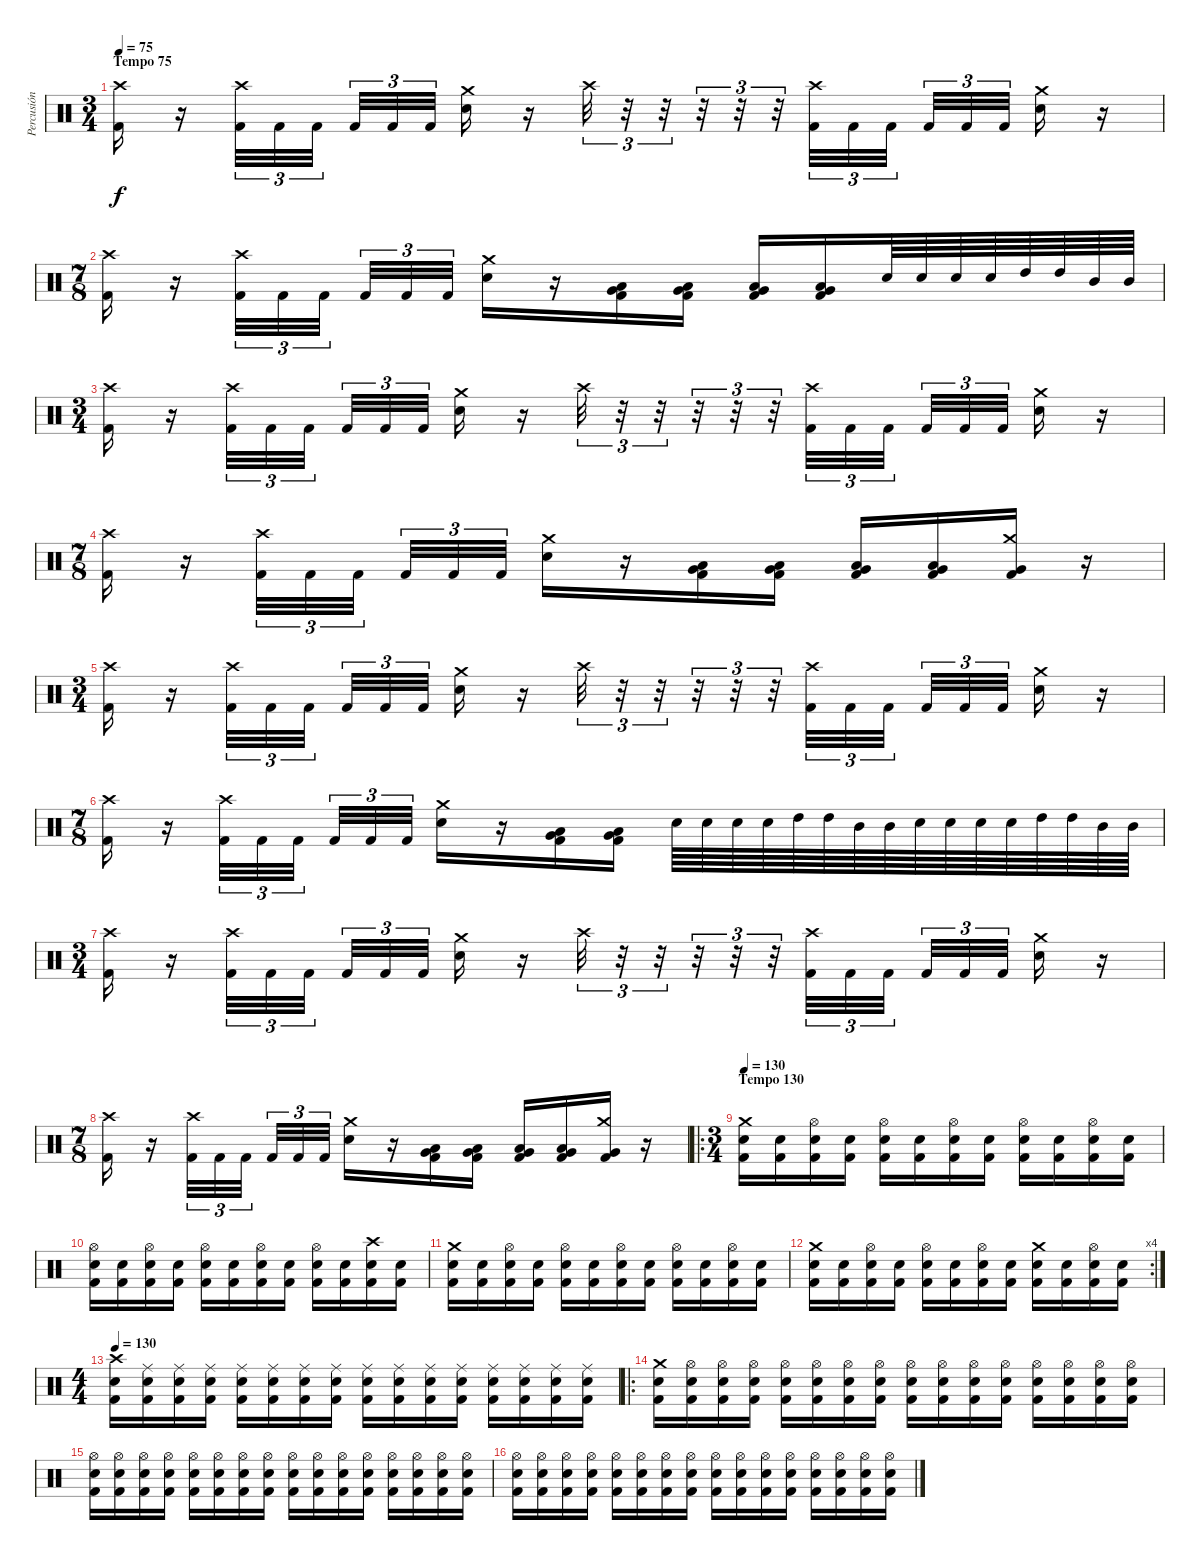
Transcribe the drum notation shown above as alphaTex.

\track ("Percusión" "Percusión") {instrument percussion}
\staff {score}
\articulation defaults
\ts (3 4)
\section ("" "Tempo 75")
\tempo 75
\clef neutral
\ks c
("Crash high (hit)" "Kick (hit) 2").16{dy f} r.16 ("Crash high (hit)" "Kick (hit) 2").32{tu (3 2)} "Kick (hit) 2".32{tu (3 2)} "Kick (hit) 2".32{tu (3 2)} "Kick (hit) 2".32{tu (3 2)} "Kick (hit) 2".32{tu (3 2)} "Kick (hit) 2".32{tu (3 2)} ("Crash medium (hit)" "Electric Snare (hit)").16 r.16 "Crash high (hit)".32{tu (3 2)} r.32{tu (3 2)} r.32{tu (3 2)} r.32{tu (3 2)} r.32{tu (3 2)} r.32{tu (3 2)} ("Crash high (hit)" "Kick (hit) 2").32{tu (3 2)} "Kick (hit) 2".32{tu (3 2)} "Kick (hit) 2".32{tu (3 2)} "Kick (hit) 2".32{tu (3 2)} "Kick (hit) 2".32{tu (3 2)} "Kick (hit) 2".32{tu (3 2)} ("Crash medium (hit)" "Electric Snare (hit)").16 r.16 |
\ts (7 8)
("Crash high (hit)" "Kick (hit) 2").16 r.16 ("Crash high (hit)" "Kick (hit) 2").32{tu (3 2)} "Kick (hit) 2".32{tu (3 2)} "Kick (hit) 2".32{tu (3 2)} "Kick (hit) 2".32{tu (3 2)} "Kick (hit) 2".32{tu (3 2)} "Kick (hit) 2".32{tu (3 2)} ("Crash medium (hit)" "Electric Snare (hit)").16 r.16 ("Low Floor Tom (hit)" "Very Low Tom (hit)" "Kick (hit) 2").16 ("Low Floor Tom (hit)" "Very Low Tom (hit)" "Kick (hit) 2").16 ("Low Floor Tom (hit)" "Very Low Tom (hit)" "Kick (hit) 2").16 ("Low Floor Tom (hit)" "Very Low Tom (hit)" "Kick (hit) 2").16 "Electric Snare (hit)".64 "Electric Snare (hit)".64 "Electric Snare (hit)".64 "Electric Snare (hit)".64 "High Tom (hit)".64 "High Tom (hit)".64 "Mid Tom (hit)".64 "Mid Tom (hit)".64 |
\ts (3 4)
("Crash high (hit)" "Kick (hit) 2").16 r.16 ("Crash high (hit)" "Kick (hit) 2").32{tu (3 2)} "Kick (hit) 2".32{tu (3 2)} "Kick (hit) 2".32{tu (3 2)} "Kick (hit) 2".32{tu (3 2)} "Kick (hit) 2".32{tu (3 2)} "Kick (hit) 2".32{tu (3 2)} ("Crash medium (hit)" "Electric Snare (hit)").16 r.16 "Crash high (hit)".32{tu (3 2)} r.32{tu (3 2)} r.32{tu (3 2)} r.32{tu (3 2)} r.32{tu (3 2)} r.32{tu (3 2)} ("Crash high (hit)" "Kick (hit) 2").32{tu (3 2)} "Kick (hit) 2".32{tu (3 2)} "Kick (hit) 2".32{tu (3 2)} "Kick (hit) 2".32{tu (3 2)} "Kick (hit) 2".32{tu (3 2)} "Kick (hit) 2".32{tu (3 2)} ("Crash medium (hit)" "Electric Snare (hit)").16 r.16 |
\ts (7 8)
("Crash high (hit)" "Kick (hit) 2").16 r.16 ("Crash high (hit)" "Kick (hit) 2").32{tu (3 2)} "Kick (hit) 2".32{tu (3 2)} "Kick (hit) 2".32{tu (3 2)} "Kick (hit) 2".32{tu (3 2)} "Kick (hit) 2".32{tu (3 2)} "Kick (hit) 2".32{tu (3 2)} ("Crash medium (hit)" "Electric Snare (hit)").16 r.16 ("Low Floor Tom (hit)" "Very Low Tom (hit)" "Kick (hit) 2").16 ("Low Floor Tom (hit)" "Very Low Tom (hit)" "Kick (hit) 2").16 ("Low Floor Tom (hit)" "Very Low Tom (hit)" "Kick (hit) 2").16 ("Low Floor Tom (hit)" "Very Low Tom (hit)" "Kick (hit) 2").16 ("Crash medium (hit)" "Very Low Tom (hit)" "Kick (hit) 2").16 r.16 |
\ts (3 4)
("Crash high (hit)" "Kick (hit) 2").16 r.16 ("Crash high (hit)" "Kick (hit) 2").32{tu (3 2)} "Kick (hit) 2".32{tu (3 2)} "Kick (hit) 2".32{tu (3 2)} "Kick (hit) 2".32{tu (3 2)} "Kick (hit) 2".32{tu (3 2)} "Kick (hit) 2".32{tu (3 2)} ("Crash medium (hit)" "Electric Snare (hit)").16 r.16 "Crash high (hit)".32{tu (3 2)} r.32{tu (3 2)} r.32{tu (3 2)} r.32{tu (3 2)} r.32{tu (3 2)} r.32{tu (3 2)} ("Crash high (hit)" "Kick (hit) 2").32{tu (3 2)} "Kick (hit) 2".32{tu (3 2)} "Kick (hit) 2".32{tu (3 2)} "Kick (hit) 2".32{tu (3 2)} "Kick (hit) 2".32{tu (3 2)} "Kick (hit) 2".32{tu (3 2)} ("Crash medium (hit)" "Electric Snare (hit)").16 r.16 |
\ts (7 8)
("Crash high (hit)" "Kick (hit) 2").16 r.16 ("Crash high (hit)" "Kick (hit) 2").32{tu (3 2)} "Kick (hit) 2".32{tu (3 2)} "Kick (hit) 2".32{tu (3 2)} "Kick (hit) 2".32{tu (3 2)} "Kick (hit) 2".32{tu (3 2)} "Kick (hit) 2".32{tu (3 2)} ("Crash medium (hit)" "Electric Snare (hit)").16 r.16 ("Low Floor Tom (hit)" "Very Low Tom (hit)" "Kick (hit) 2").16 ("Low Floor Tom (hit)" "Very Low Tom (hit)" "Kick (hit) 2").16 "Electric Snare (hit)".64 "Electric Snare (hit)".64 "Electric Snare (hit)".64 "Electric Snare (hit)".64 "High Tom (hit)".64 "High Tom (hit)".64 "Mid Tom (hit)".64 "Mid Tom (hit)".64 "Electric Snare (hit)".64 "Electric Snare (hit)".64 "Electric Snare (hit)".64 "Electric Snare (hit)".64 "High Tom (hit)".64 "High Tom (hit)".64 "Mid Tom (hit)".64 "Mid Tom (hit)".64 |
\ts (3 4)
("Crash high (hit)" "Kick (hit) 2").16 r.16 ("Crash high (hit)" "Kick (hit) 2").32{tu (3 2)} "Kick (hit) 2".32{tu (3 2)} "Kick (hit) 2".32{tu (3 2)} "Kick (hit) 2".32{tu (3 2)} "Kick (hit) 2".32{tu (3 2)} "Kick (hit) 2".32{tu (3 2)} ("Crash medium (hit)" "Electric Snare (hit)").16 r.16 "Crash high (hit)".32{tu (3 2)} r.32{tu (3 2)} r.32{tu (3 2)} r.32{tu (3 2)} r.32{tu (3 2)} r.32{tu (3 2)} ("Crash high (hit)" "Kick (hit) 2").32{tu (3 2)} "Kick (hit) 2".32{tu (3 2)} "Kick (hit) 2".32{tu (3 2)} "Kick (hit) 2".32{tu (3 2)} "Kick (hit) 2".32{tu (3 2)} "Kick (hit) 2".32{tu (3 2)} ("Crash medium (hit)" "Electric Snare (hit)").16 r.16 |
\ts (7 8)
("Crash high (hit)" "Kick (hit) 2").16 r.16 ("Crash high (hit)" "Kick (hit) 2").32{tu (3 2)} "Kick (hit) 2".32{tu (3 2)} "Kick (hit) 2".32{tu (3 2)} "Kick (hit) 2".32{tu (3 2)} "Kick (hit) 2".32{tu (3 2)} "Kick (hit) 2".32{tu (3 2)} ("Crash medium (hit)" "Electric Snare (hit)").16 r.16 ("Low Floor Tom (hit)" "Very Low Tom (hit)" "Kick (hit) 2").16 ("Low Floor Tom (hit)" "Very Low Tom (hit)" "Kick (hit) 2").16 ("Low Floor Tom (hit)" "Very Low Tom (hit)" "Kick (hit) 2").16 ("Low Floor Tom (hit)" "Very Low Tom (hit)" "Kick (hit) 2").16 ("Crash medium (hit)" "Very Low Tom (hit)" "Kick (hit) 2").16 r.16 |
\ro
\ts (3 4)
\section ("" "Tempo 130")
\tempo 130
("Crash medium (hit)" "Electric Snare (hit)" "Kick (hit) 2").16 ("Electric Snare (hit)" "Kick (hit) 2").16 ("Hi-Hat (open)" "Electric Snare (hit)" "Kick (hit) 2").16 ("Electric Snare (hit)" "Kick (hit) 2").16 ("Hi-Hat (open)" "Electric Snare (hit)" "Kick (hit) 2").16 ("Electric Snare (hit)" "Kick (hit) 2").16 ("Hi-Hat (open)" "Electric Snare (hit)" "Kick (hit) 2").16 ("Electric Snare (hit)" "Kick (hit) 2").16 ("Hi-Hat (open)" "Electric Snare (hit)" "Kick (hit) 2").16 ("Electric Snare (hit)" "Kick (hit) 2").16 ("Hi-Hat (open)" "Electric Snare (hit)" "Kick (hit) 2").16 ("Electric Snare (hit)" "Kick (hit) 2").16 |
("Hi-Hat (open)" "Electric Snare (hit)" "Kick (hit) 2").16 ("Electric Snare (hit)" "Kick (hit) 2").16 ("Hi-Hat (open)" "Electric Snare (hit)" "Kick (hit) 2").16 ("Electric Snare (hit)" "Kick (hit) 2").16 ("Hi-Hat (open)" "Electric Snare (hit)" "Kick (hit) 2").16 ("Electric Snare (hit)" "Kick (hit) 2").16 ("Hi-Hat (open)" "Electric Snare (hit)" "Kick (hit) 2").16 ("Electric Snare (hit)" "Kick (hit) 2").16 ("Hi-Hat (open)" "Electric Snare (hit)" "Kick (hit) 2").16 ("Electric Snare (hit)" "Kick (hit) 2").16 ("Crash high (hit)" "Electric Snare (hit)" "Kick (hit) 2").16 ("Electric Snare (hit)" "Kick (hit) 2").16 |
("Crash medium (hit)" "Electric Snare (hit)" "Kick (hit) 2").16 ("Electric Snare (hit)" "Kick (hit) 2").16 ("Hi-Hat (open)" "Electric Snare (hit)" "Kick (hit) 2").16 ("Electric Snare (hit)" "Kick (hit) 2").16 ("Hi-Hat (open)" "Electric Snare (hit)" "Kick (hit) 2").16 ("Electric Snare (hit)" "Kick (hit) 2").16 ("Hi-Hat (open)" "Electric Snare (hit)" "Kick (hit) 2").16 ("Electric Snare (hit)" "Kick (hit) 2").16 ("Hi-Hat (open)" "Electric Snare (hit)" "Kick (hit) 2").16 ("Electric Snare (hit)" "Kick (hit) 2").16 ("Hi-Hat (open)" "Electric Snare (hit)" "Kick (hit) 2").16 ("Electric Snare (hit)" "Kick (hit) 2").16 |
\rc 4
("Crash medium (hit)" "Electric Snare (hit)" "Kick (hit) 2").16 ("Electric Snare (hit)" "Kick (hit) 2").16 ("Hi-Hat (open)" "Electric Snare (hit)" "Kick (hit) 2").16 ("Electric Snare (hit)" "Kick (hit) 2").16 ("Hi-Hat (open)" "Electric Snare (hit)" "Kick (hit) 2").16 ("Electric Snare (hit)" "Kick (hit) 2").16 ("Hi-Hat (open)" "Electric Snare (hit)" "Kick (hit) 2").16 ("Electric Snare (hit)" "Kick (hit) 2").16 ("Crash medium (hit)" "Electric Snare (hit)" "Kick (hit) 2").16 ("Electric Snare (hit)" "Kick (hit) 2").16 ("Hi-Hat (open)" "Electric Snare (hit)" "Kick (hit) 2").16 ("Electric Snare (hit)" "Kick (hit) 2").16 |
\ts (4 4)
\tempo 130
("Crash high (hit)" "Electric Snare (hit)" "Kick (hit) 2").16 ("Ride (middle)" "Electric Snare (hit)" "Kick (hit) 2").16 ("Ride (middle)" "Electric Snare (hit)" "Kick (hit) 2").16 ("Ride (middle)" "Electric Snare (hit)" "Kick (hit) 2").16 ("Ride (middle)" "Electric Snare (hit)" "Kick (hit) 2").16 ("Ride (middle)" "Electric Snare (hit)" "Kick (hit) 2").16 ("Ride (middle)" "Electric Snare (hit)" "Kick (hit) 2").16 ("Ride (middle)" "Electric Snare (hit)" "Kick (hit) 2").16 ("Ride (middle)" "Electric Snare (hit)" "Kick (hit) 2").16 ("Ride (middle)" "Electric Snare (hit)" "Kick (hit) 2").16 ("Ride (middle)" "Electric Snare (hit)" "Kick (hit) 2").16 ("Ride (middle)" "Electric Snare (hit)" "Kick (hit) 2").16 ("Ride (middle)" "Electric Snare (hit)" "Kick (hit) 2").16 ("Ride (middle)" "Electric Snare (hit)" "Kick (hit) 2").16 ("Ride (middle)" "Electric Snare (hit)" "Kick (hit) 2").16 ("Ride (middle)" "Electric Snare (hit)" "Kick (hit) 2").16 |
\ro
("Crash medium (hit)" "Electric Snare (hit)" "Kick (hit) 2").16 ("Hi-Hat (open)" "Electric Snare (hit)" "Kick (hit) 2").16 ("Hi-Hat (open)" "Electric Snare (hit)" "Kick (hit) 2").16 ("Hi-Hat (open)" "Electric Snare (hit)" "Kick (hit) 2").16 ("Hi-Hat (open)" "Electric Snare (hit)" "Kick (hit) 2").16 ("Hi-Hat (open)" "Electric Snare (hit)" "Kick (hit) 2").16 ("Hi-Hat (open)" "Electric Snare (hit)" "Kick (hit) 2").16 ("Hi-Hat (open)" "Electric Snare (hit)" "Kick (hit) 2").16 ("Hi-Hat (open)" "Electric Snare (hit)" "Kick (hit) 2").16 ("Hi-Hat (open)" "Electric Snare (hit)" "Kick (hit) 2").16 ("Hi-Hat (open)" "Electric Snare (hit)" "Kick (hit) 2").16 ("Hi-Hat (open)" "Electric Snare (hit)" "Kick (hit) 2").16 ("Hi-Hat (open)" "Electric Snare (hit)" "Kick (hit) 2").16 ("Hi-Hat (open)" "Electric Snare (hit)" "Kick (hit) 2").16 ("Hi-Hat (open)" "Electric Snare (hit)" "Kick (hit) 2").16 ("Hi-Hat (open)" "Electric Snare (hit)" "Kick (hit) 2").16 |
("Hi-Hat (open)" "Electric Snare (hit)" "Kick (hit) 2").16 ("Hi-Hat (open)" "Electric Snare (hit)" "Kick (hit) 2").16 ("Hi-Hat (open)" "Electric Snare (hit)" "Kick (hit) 2").16 ("Hi-Hat (open)" "Electric Snare (hit)" "Kick (hit) 2").16 ("Hi-Hat (open)" "Electric Snare (hit)" "Kick (hit) 2").16 ("Hi-Hat (open)" "Electric Snare (hit)" "Kick (hit) 2").16 ("Hi-Hat (open)" "Electric Snare (hit)" "Kick (hit) 2").16 ("Hi-Hat (open)" "Electric Snare (hit)" "Kick (hit) 2").16 ("Hi-Hat (open)" "Electric Snare (hit)" "Kick (hit) 2").16 ("Hi-Hat (open)" "Electric Snare (hit)" "Kick (hit) 2").16 ("Hi-Hat (open)" "Electric Snare (hit)" "Kick (hit) 2").16 ("Hi-Hat (open)" "Electric Snare (hit)" "Kick (hit) 2").16 ("Hi-Hat (open)" "Electric Snare (hit)" "Kick (hit) 2").16 ("Hi-Hat (open)" "Electric Snare (hit)" "Kick (hit) 2").16 ("Hi-Hat (open)" "Electric Snare (hit)" "Kick (hit) 2").16 ("Hi-Hat (open)" "Electric Snare (hit)" "Kick (hit) 2").16 |
("Hi-Hat (open)" "Electric Snare (hit)" "Kick (hit) 2").16 ("Hi-Hat (open)" "Electric Snare (hit)" "Kick (hit) 2").16 ("Hi-Hat (open)" "Electric Snare (hit)" "Kick (hit) 2").16 ("Hi-Hat (open)" "Electric Snare (hit)" "Kick (hit) 2").16 ("Hi-Hat (open)" "Electric Snare (hit)" "Kick (hit) 2").16 ("Hi-Hat (open)" "Electric Snare (hit)" "Kick (hit) 2").16 ("Hi-Hat (open)" "Electric Snare (hit)" "Kick (hit) 2").16 ("Hi-Hat (open)" "Electric Snare (hit)" "Kick (hit) 2").16 ("Hi-Hat (open)" "Electric Snare (hit)" "Kick (hit) 2").16 ("Hi-Hat (open)" "Electric Snare (hit)" "Kick (hit) 2").16 ("Hi-Hat (open)" "Electric Snare (hit)" "Kick (hit) 2").16 ("Hi-Hat (open)" "Electric Snare (hit)" "Kick (hit) 2").16 ("Hi-Hat (open)" "Electric Snare (hit)" "Kick (hit) 2").16 ("Hi-Hat (open)" "Electric Snare (hit)" "Kick (hit) 2").16 ("Hi-Hat (open)" "Electric Snare (hit)" "Kick (hit) 2").16 ("Hi-Hat (open)" "Electric Snare (hit)" "Kick (hit) 2").16
